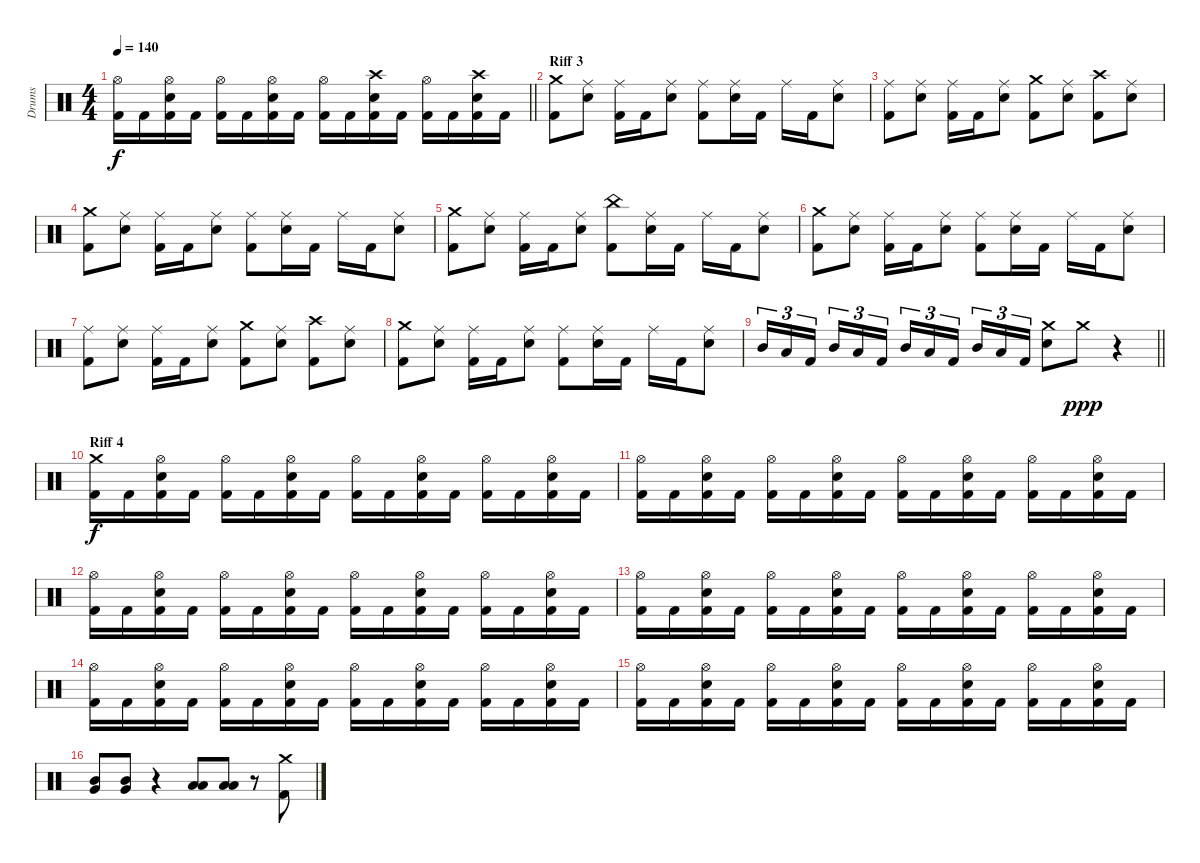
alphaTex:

\track ("Drums" "Drums") {instrument percussion}
\staff {score}
\articulation defaults
\ts (4 4)
\tempo 140
\clef neutral
\barLineRight lightlight
\ks c
("Hi-Hat (open)" "Kick (hit) 2").16{dy f} "Kick (hit) 2".16 ("Hi-Hat (open)" "Electric Snare (hit)" "Kick (hit) 2").16 "Kick (hit) 2".16 ("Hi-Hat (open)" "Kick (hit) 2").16 "Kick (hit) 2".16 ("Hi-Hat (open)" "Electric Snare (hit)" "Kick (hit) 2").16 "Kick (hit) 2".16 ("Hi-Hat (open)" "Kick (hit) 2").16 "Kick (hit) 2".16 ("Crash high (hit)" "Electric Snare (hit)" "Kick (hit) 2").16 "Kick (hit) 2".16 ("Hi-Hat (open)" "Kick (hit) 2").16 "Kick (hit) 2".16 ("Crash high (hit)" "Electric Snare (hit)" "Kick (hit) 2").16 "Kick (hit) 2".16 |
\section ("" "Riff 3")
("Crash medium (hit)" "Kick (hit) 2").8 ("Ride (middle)" "Electric Snare (hit)").8 ("Kick (hit) 2" "Ride (middle)").16 "Kick (hit) 2".16 ("Ride (middle)" "Electric Snare (hit)").8 ("Kick (hit) 2" "Ride (middle)").8 ("Electric Snare (hit)" "Ride (middle)").16 "Kick (hit) 2".16 "Ride (middle)".16 "Kick (hit) 2".16 ("Electric Snare (hit)" "Ride (middle)").8 |
("Ride (middle)" "Kick (hit) 2").8 ("Ride (middle)" "Electric Snare (hit)").8 ("Kick (hit) 2" "Ride (middle)").16 "Kick (hit) 2".16 ("Ride (middle)" "Electric Snare (hit)").8 ("Kick (hit) 2" "Crash medium (hit)").8 ("Electric Snare (hit)" "Ride (middle)").8 ("Kick (hit) 2" "Crash high (hit)").8 ("Electric Snare (hit)" "Ride (middle)").8 |
("Crash medium (hit)" "Kick (hit) 2").8 ("Ride (middle)" "Electric Snare (hit)").8 ("Kick (hit) 2" "Ride (middle)").16 "Kick (hit) 2".16 ("Ride (middle)" "Electric Snare (hit)").8 ("Kick (hit) 2" "Ride (middle)").8 ("Electric Snare (hit)" "Ride (middle)").16 "Kick (hit) 2".16 "Ride (middle)".16 "Kick (hit) 2".16 ("Electric Snare (hit)" "Ride (middle)").8 |
("Crash medium (hit)" "Kick (hit) 2").8 ("Ride (middle)" "Electric Snare (hit)").8 ("Kick (hit) 2" "Ride (middle)").16 "Kick (hit) 2".16 ("Ride (middle)" "Electric Snare (hit)").8 ("Kick (hit) 2" "China (hit)").8 ("Electric Snare (hit)" "Ride (middle)").16 "Kick (hit) 2".16 "Ride (middle)".16 "Kick (hit) 2".16 ("Electric Snare (hit)" "Ride (middle)").8 |
("Crash medium (hit)" "Kick (hit) 2").8 ("Ride (middle)" "Electric Snare (hit)").8 ("Kick (hit) 2" "Ride (middle)").16 "Kick (hit) 2".16 ("Ride (middle)" "Electric Snare (hit)").8 ("Kick (hit) 2" "Ride (middle)").8 ("Electric Snare (hit)" "Ride (middle)").16 "Kick (hit) 2".16 "Ride (middle)".16 "Kick (hit) 2".16 ("Electric Snare (hit)" "Ride (middle)").8 |
("Ride (middle)" "Kick (hit) 2").8 ("Ride (middle)" "Electric Snare (hit)").8 ("Kick (hit) 2" "Ride (middle)").16 "Kick (hit) 2".16 ("Ride (middle)" "Electric Snare (hit)").8 ("Kick (hit) 2" "Crash medium (hit)").8 ("Electric Snare (hit)" "Ride (middle)").8 ("Kick (hit) 2" "Crash high (hit)").8 ("Electric Snare (hit)" "Ride (middle)").8 |
("Crash medium (hit)" "Kick (hit) 2").8 ("Ride (middle)" "Electric Snare (hit)").8 ("Kick (hit) 2" "Ride (middle)").16 "Kick (hit) 2".16 ("Ride (middle)" "Electric Snare (hit)").8 ("Kick (hit) 2" "Ride (middle)").8 ("Electric Snare (hit)" "Ride (middle)").16 "Kick (hit) 2".16 "Ride (middle)".16 "Kick (hit) 2".16 ("Electric Snare (hit)" "Ride (middle)").8 |
\barLineRight lightlight "Mid Tom (hit)".16{tu (3 2)} "Low Floor Tom (hit)".16{tu (3 2)} "Kick (hit) 2".16{tu (3 2) beam splitsecondary} "Mid Tom (hit)".16{tu (3 2)} "Low Floor Tom (hit)".16{tu (3 2)} "Kick (hit) 2".16{tu (3 2)} "Mid Tom (hit)".16{tu (3 2)} "Low Floor Tom (hit)".16{tu (3 2)} "Kick (hit) 2".16{tu (3 2) beam splitsecondary} "Mid Tom (hit)".16{tu (3 2)} "Low Floor Tom (hit)".16{tu (3 2)} "Kick (hit) 2".16{tu (3 2)}
("Electric Snare (hit)" "Crash medium (hit)").8 "Crash medium (hit)".8{dy ppp} r.4 |
\section ("" "Riff 4")
("Crash medium (hit)" "Kick (hit) 2").16{dy f} "Kick (hit) 2".16 ("Electric Snare (hit)" "Hi-Hat (open)" "Kick (hit) 2").16 "Kick (hit) 2".16 ("Hi-Hat (open)" "Kick (hit) 2").16 "Kick (hit) 2".16 ("Electric Snare (hit)" "Hi-Hat (open)" "Kick (hit) 2").16 "Kick (hit) 2".16 ("Hi-Hat (open)" "Kick (hit) 2").16 "Kick (hit) 2".16 ("Electric Snare (hit)" "Hi-Hat (open)" "Kick (hit) 2").16 "Kick (hit) 2".16 ("Hi-Hat (open)" "Kick (hit) 2").16 "Kick (hit) 2".16 ("Kick (hit) 2" "Electric Snare (hit)" "Hi-Hat (open)").16 "Kick (hit) 2".16 |
("Hi-Hat (open)" "Kick (hit) 2").16 "Kick (hit) 2".16 ("Electric Snare (hit)" "Hi-Hat (open)" "Kick (hit) 2").16 "Kick (hit) 2".16 ("Hi-Hat (open)" "Kick (hit) 2").16 "Kick (hit) 2".16 ("Kick (hit) 2" "Electric Snare (hit)" "Hi-Hat (open)").16 "Kick (hit) 2".16 ("Hi-Hat (open)" "Kick (hit) 2").16 "Kick (hit) 2".16 ("Electric Snare (hit)" "Hi-Hat (open)" "Kick (hit) 2").16 "Kick (hit) 2".16 ("Hi-Hat (open)" "Kick (hit) 2").16 "Kick (hit) 2".16 ("Kick (hit) 2" "Electric Snare (hit)" "Hi-Hat (open)").16 "Kick (hit) 2".16 |
("Hi-Hat (open)" "Kick (hit) 2").16 "Kick (hit) 2".16 ("Electric Snare (hit)" "Hi-Hat (open)" "Kick (hit) 2").16 "Kick (hit) 2".16 ("Hi-Hat (open)" "Kick (hit) 2").16 "Kick (hit) 2".16 ("Kick (hit) 2" "Electric Snare (hit)" "Hi-Hat (open)").16 "Kick (hit) 2".16 ("Hi-Hat (open)" "Kick (hit) 2").16 "Kick (hit) 2".16 ("Electric Snare (hit)" "Hi-Hat (open)" "Kick (hit) 2").16 "Kick (hit) 2".16 ("Hi-Hat (open)" "Kick (hit) 2").16 "Kick (hit) 2".16 ("Kick (hit) 2" "Electric Snare (hit)" "Hi-Hat (open)").16 "Kick (hit) 2".16 |
("Hi-Hat (open)" "Kick (hit) 2").16 "Kick (hit) 2".16 ("Electric Snare (hit)" "Hi-Hat (open)" "Kick (hit) 2").16 "Kick (hit) 2".16 ("Hi-Hat (open)" "Kick (hit) 2").16 "Kick (hit) 2".16 ("Kick (hit) 2" "Electric Snare (hit)" "Hi-Hat (open)").16 "Kick (hit) 2".16 ("Hi-Hat (open)" "Kick (hit) 2").16 "Kick (hit) 2".16 ("Electric Snare (hit)" "Hi-Hat (open)" "Kick (hit) 2").16 "Kick (hit) 2".16 ("Hi-Hat (open)" "Kick (hit) 2").16 "Kick (hit) 2".16 ("Kick (hit) 2" "Electric Snare (hit)" "Hi-Hat (open)").16 "Kick (hit) 2".16 |
("Hi-Hat (open)" "Kick (hit) 2").16 "Kick (hit) 2".16 ("Electric Snare (hit)" "Hi-Hat (open)" "Kick (hit) 2").16 "Kick (hit) 2".16 ("Hi-Hat (open)" "Kick (hit) 2").16 "Kick (hit) 2".16 ("Kick (hit) 2" "Electric Snare (hit)" "Hi-Hat (open)").16 "Kick (hit) 2".16 ("Hi-Hat (open)" "Kick (hit) 2").16 "Kick (hit) 2".16 ("Electric Snare (hit)" "Hi-Hat (open)" "Kick (hit) 2").16 "Kick (hit) 2".16 ("Hi-Hat (open)" "Kick (hit) 2").16 "Kick (hit) 2".16 ("Kick (hit) 2" "Electric Snare (hit)" "Hi-Hat (open)").16 "Kick (hit) 2".16 |
("Hi-Hat (open)" "Kick (hit) 2").16 "Kick (hit) 2".16 ("Electric Snare (hit)" "Hi-Hat (open)" "Kick (hit) 2").16 "Kick (hit) 2".16 ("Hi-Hat (open)" "Kick (hit) 2").16 "Kick (hit) 2".16 ("Kick (hit) 2" "Electric Snare (hit)" "Hi-Hat (open)").16 "Kick (hit) 2".16 ("Hi-Hat (open)" "Kick (hit) 2").16 "Kick (hit) 2".16 ("Electric Snare (hit)" "Hi-Hat (open)" "Kick (hit) 2").16 "Kick (hit) 2".16 ("Hi-Hat (open)" "Kick (hit) 2").16 "Kick (hit) 2".16 ("Kick (hit) 2" "Electric Snare (hit)" "Hi-Hat (open)").16 "Kick (hit) 2".16 |
("Mid Tom (hit)" "Very Low Tom (hit)").8 ("Mid Tom (hit)" "Very Low Tom (hit)").8 r.4 ("Low Tom (hit)" "Low Floor Tom (hit)").8 ("Low Tom (hit)" "Low Floor Tom (hit)").8 r.8 ("Crash medium (hit)" "Kick (hit) 2").8
